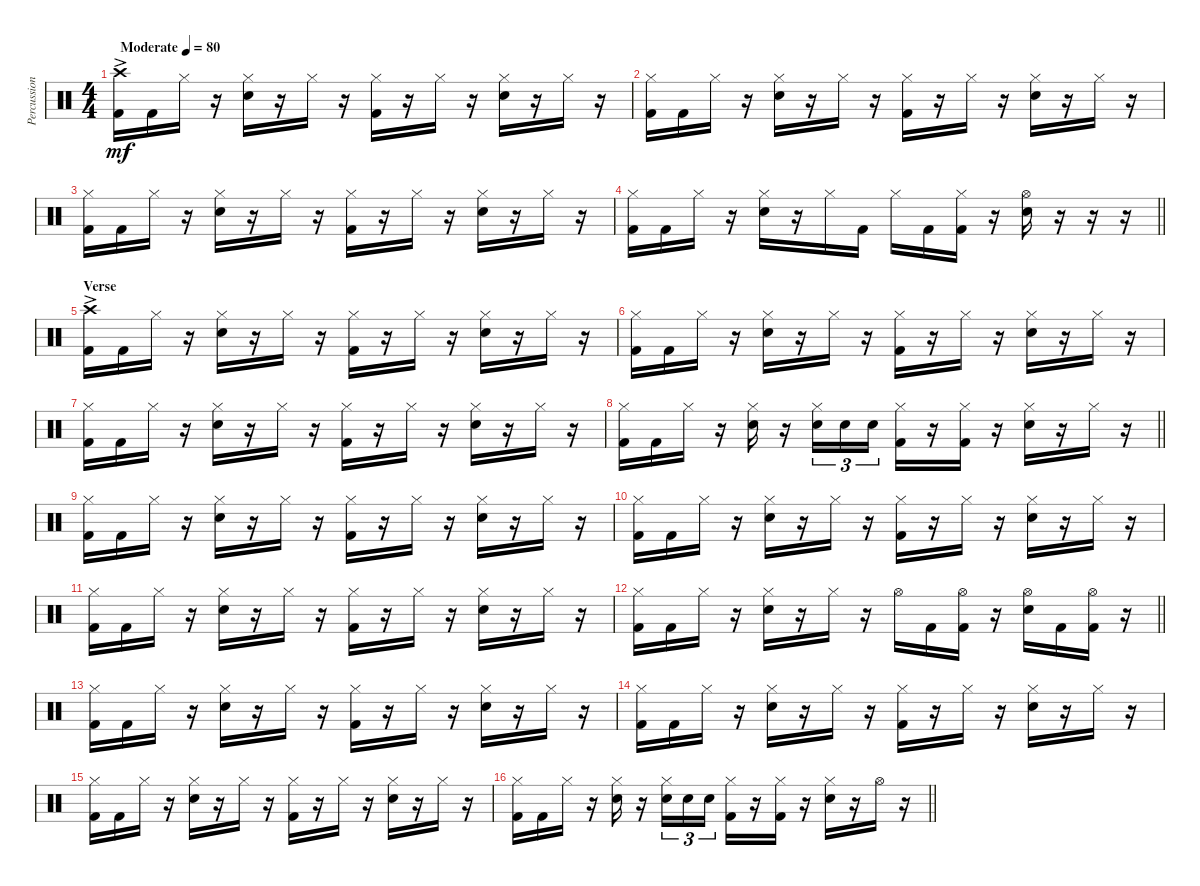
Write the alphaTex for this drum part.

\track ("Percussion" "Percussion") {instrument percussion}
\staff {score}
\articulation defaults
\ts (4 4)
\tempo (80 "Moderate")
\clef neutral
\ks c
("Crash high (hit)"{ac} "Kick (hit) 2").16{dy mf} "Kick (hit) 2".16 "Hi-Hat (closed)".16 r.16 ("Hi-Hat (closed)" "Snare (hit) 2").16 r.16 "Hi-Hat (closed)".16 r.16 ("Hi-Hat (closed)" "Kick (hit) 2").16 r.16 "Hi-Hat (closed)".16 r.16 ("Hi-Hat (closed)" "Snare (hit) 2").16 r.16 "Hi-Hat (closed)".16 r.16 |
("Hi-Hat (closed)" "Kick (hit) 2").16 "Kick (hit) 2".16 "Hi-Hat (closed)".16 r.16 ("Hi-Hat (closed)" "Snare (hit) 2").16 r.16 "Hi-Hat (closed)".16 r.16 ("Hi-Hat (closed)" "Kick (hit) 2").16 r.16 "Hi-Hat (closed)".16 r.16 ("Hi-Hat (closed)" "Snare (hit) 2").16 r.16 "Hi-Hat (closed)".16 r.16 |
("Hi-Hat (closed)" "Kick (hit) 2").16 "Kick (hit) 2".16 "Hi-Hat (closed)".16 r.16 ("Hi-Hat (closed)" "Snare (hit) 2").16 r.16 "Hi-Hat (closed)".16 r.16 ("Hi-Hat (closed)" "Kick (hit) 2").16 r.16 "Hi-Hat (closed)".16 r.16 ("Hi-Hat (closed)" "Snare (hit) 2").16 r.16 "Hi-Hat (closed)".16 r.16 |
\barLineRight lightlight
("Hi-Hat (closed)" "Kick (hit) 2").16 "Kick (hit) 2".16 "Hi-Hat (closed)".16 r.16 ("Hi-Hat (closed)" "Snare (hit) 2").16 r.16 "Hi-Hat (closed)".16 "Kick (hit) 2".16 "Hi-Hat (closed)".16 "Kick (hit) 2".16 ("Hi-Hat (closed)" "Kick (hit) 2").16 r.16 ("Hi-Hat (open)" "Snare (hit) 2").16 r.16 r.16 r.16 |
\section ("" "Verse")
("Crash high (hit)"{ac} "Kick (hit) 2").16 "Kick (hit) 2".16 "Hi-Hat (closed)".16 r.16 ("Hi-Hat (closed)" "Snare (hit) 2").16 r.16 "Hi-Hat (closed)".16 r.16 ("Hi-Hat (closed)" "Kick (hit) 2").16 r.16 "Hi-Hat (closed)".16 r.16 ("Hi-Hat (closed)" "Snare (hit) 2").16 r.16 "Hi-Hat (closed)".16 r.16 |
("Hi-Hat (closed)" "Kick (hit) 2").16 "Kick (hit) 2".16 "Hi-Hat (closed)".16 r.16 ("Hi-Hat (closed)" "Snare (hit) 2").16 r.16 "Hi-Hat (closed)".16 r.16 ("Hi-Hat (closed)" "Kick (hit) 2").16 r.16 "Hi-Hat (closed)".16 r.16 ("Hi-Hat (closed)" "Snare (hit) 2").16 r.16 "Hi-Hat (closed)".16 r.16 |
("Hi-Hat (closed)" "Kick (hit) 2").16 "Kick (hit) 2".16 "Hi-Hat (closed)".16 r.16 ("Hi-Hat (closed)" "Snare (hit) 2").16 r.16 "Hi-Hat (closed)".16 r.16 ("Hi-Hat (closed)" "Kick (hit) 2").16 r.16 "Hi-Hat (closed)".16 r.16 ("Hi-Hat (closed)" "Snare (hit) 2").16 r.16 "Hi-Hat (closed)".16 r.16 |
\barLineRight lightlight
("Hi-Hat (closed)" "Kick (hit) 2").16 "Kick (hit) 2".16 "Hi-Hat (closed)".16 r.16 ("Hi-Hat (closed)" "Snare (hit) 2").16 r.16 ("Hi-Hat (closed)" "Snare (hit) 2").16{tu (3 2)} "Snare (hit) 2".16{tu (3 2)} "Snare (hit) 2".16{tu (3 2)} ("Hi-Hat (closed)" "Kick (hit) 2").16 r.16 ("Hi-Hat (closed)" "Kick (hit) 2").16 r.16 ("Hi-Hat (closed)" "Snare (hit) 2").16 r.16 "Hi-Hat (closed)".16 r.16 |
("Hi-Hat (closed)" "Kick (hit) 2").16 "Kick (hit) 2".16 "Hi-Hat (closed)".16 r.16 ("Hi-Hat (closed)" "Snare (hit) 2").16 r.16 "Hi-Hat (closed)".16 r.16 ("Hi-Hat (closed)" "Kick (hit) 2").16 r.16 "Hi-Hat (closed)".16 r.16 ("Hi-Hat (closed)" "Snare (hit) 2").16 r.16 "Hi-Hat (closed)".16 r.16 |
("Hi-Hat (closed)" "Kick (hit) 2").16 "Kick (hit) 2".16 "Hi-Hat (closed)".16 r.16 ("Hi-Hat (closed)" "Snare (hit) 2").16 r.16 "Hi-Hat (closed)".16 r.16 ("Hi-Hat (closed)" "Kick (hit) 2").16 r.16 "Hi-Hat (closed)".16 r.16 ("Hi-Hat (closed)" "Snare (hit) 2").16 r.16 "Hi-Hat (closed)".16 r.16 |
("Hi-Hat (closed)" "Kick (hit) 2").16 "Kick (hit) 2".16 "Hi-Hat (closed)".16 r.16 ("Hi-Hat (closed)" "Snare (hit) 2").16 r.16 "Hi-Hat (closed)".16 r.16 ("Hi-Hat (closed)" "Kick (hit) 2").16 r.16 "Hi-Hat (closed)".16 r.16 ("Hi-Hat (closed)" "Snare (hit) 2").16 r.16 "Hi-Hat (closed)".16 r.16 |
\barLineRight lightlight
("Hi-Hat (closed)" "Kick (hit) 2").16 "Kick (hit) 2".16 "Hi-Hat (closed)".16 r.16 ("Hi-Hat (closed)" "Snare (hit) 2").16 r.16 "Hi-Hat (closed)".16 r.16 "Hi-Hat (open)".16 "Kick (hit) 2".16 ("Hi-Hat (open)" "Kick (hit) 2").16 r.16 ("Hi-Hat (open)" "Snare (hit) 2").16 "Kick (hit) 2".16 ("Hi-Hat (open)" "Kick (hit) 2").16 r.16 |
("Hi-Hat (closed)" "Kick (hit) 2").16 "Kick (hit) 2".16 "Hi-Hat (closed)".16 r.16 ("Hi-Hat (closed)" "Snare (hit) 2").16 r.16 "Hi-Hat (closed)".16 r.16 ("Hi-Hat (closed)" "Kick (hit) 2").16 r.16 "Hi-Hat (closed)".16 r.16 ("Hi-Hat (closed)" "Snare (hit) 2").16 r.16 "Hi-Hat (closed)".16 r.16 |
("Hi-Hat (closed)" "Kick (hit) 2").16 "Kick (hit) 2".16 "Hi-Hat (closed)".16 r.16 ("Hi-Hat (closed)" "Snare (hit) 2").16 r.16 "Hi-Hat (closed)".16 r.16 ("Hi-Hat (closed)" "Kick (hit) 2").16 r.16 "Hi-Hat (closed)".16 r.16 ("Hi-Hat (closed)" "Snare (hit) 2").16 r.16 "Hi-Hat (closed)".16 r.16 |
("Hi-Hat (closed)" "Kick (hit) 2").16 "Kick (hit) 2".16 "Hi-Hat (closed)".16 r.16 ("Hi-Hat (closed)" "Snare (hit) 2").16 r.16 "Hi-Hat (closed)".16 r.16 ("Hi-Hat (closed)" "Kick (hit) 2").16 r.16 "Hi-Hat (closed)".16 r.16 ("Hi-Hat (closed)" "Snare (hit) 2").16 r.16 "Hi-Hat (closed)".16 r.16 |
\barLineRight lightlight
("Hi-Hat (closed)" "Kick (hit) 2").16 "Kick (hit) 2".16 "Hi-Hat (closed)".16 r.16 ("Hi-Hat (closed)" "Snare (hit) 2").16 r.16 ("Hi-Hat (closed)" "Snare (hit) 2").16{tu (3 2)} "Snare (hit) 2".16{tu (3 2)} "Snare (hit) 2".16{tu (3 2)} ("Hi-Hat (closed)" "Kick (hit) 2").16 r.16 ("Hi-Hat (closed)" "Kick (hit) 2").16 r.16 ("Hi-Hat (closed)" "Snare (hit) 2").16 r.16 "Hi-Hat (open)".16 r.16
